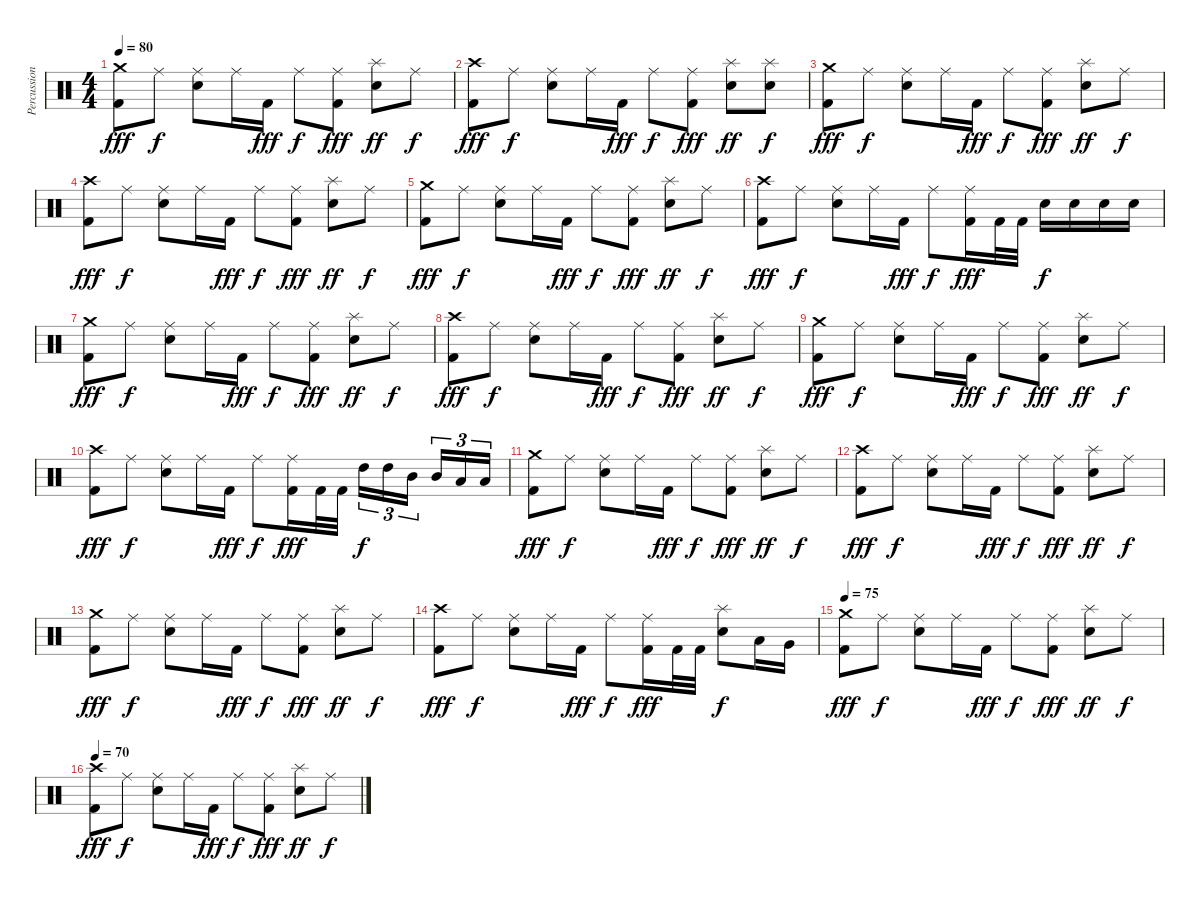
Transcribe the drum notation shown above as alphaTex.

\track ("Percussion" "Percussion") {instrument percussion}
\staff {score}
\articulation defaults
\ts (4 4)
\tempo 80
\clef neutral
\ks c
("Crash medium (hit)" "Kick (hit) 2").8{dy fff} "Ride (middle)".8{dy f} ("Ride (middle)" "Electric Snare (hit)").8 "Ride (middle)".16 "Kick (hit) 2".16{dy fff} "Ride (middle)".8{dy f} ("Ride (middle)" "Kick (hit) 2").8{dy fff} ("Splash (hit)" "Electric Snare (hit)").8{dy ff} "Ride (middle)".8{dy f} |
("Crash high (hit)" "Kick (hit) 2").8{dy fff} "Ride (middle)".8{dy f} ("Ride (middle)" "Electric Snare (hit)").8 "Ride (middle)".16 "Kick (hit) 2".16{dy fff} "Ride (middle)".8{dy f} ("Ride (middle)" "Kick (hit) 2").8{dy fff} ("Splash (hit)" "Electric Snare (hit)").8{dy ff} ("Splash (hit)" "Electric Snare (hit)").8{dy f} |
("Crash medium (hit)" "Kick (hit) 2").8{dy fff} "Ride (middle)".8{dy f} ("Ride (middle)" "Electric Snare (hit)").8 "Ride (middle)".16 "Kick (hit) 2".16{dy fff} "Ride (middle)".8{dy f} ("Ride (middle)" "Kick (hit) 2").8{dy fff} ("Splash (hit)" "Electric Snare (hit)").8{dy ff} "Ride (middle)".8{dy f} |
("Crash high (hit)" "Kick (hit) 2").8{dy fff} "Ride (middle)".8{dy f} ("Ride (middle)" "Electric Snare (hit)").8 "Ride (middle)".16 "Kick (hit) 2".16{dy fff} "Ride (middle)".8{dy f} ("Ride (middle)" "Kick (hit) 2").8{dy fff} ("Splash (hit)" "Electric Snare (hit)").8{dy ff} "Ride (middle)".8{dy f} |
("Crash medium (hit)" "Kick (hit) 2").8{dy fff} "Ride (middle)".8{dy f} ("Ride (middle)" "Electric Snare (hit)").8 "Ride (middle)".16 "Kick (hit) 2".16{dy fff} "Ride (middle)".8{dy f} ("Ride (middle)" "Kick (hit) 2").8{dy fff} ("Splash (hit)" "Electric Snare (hit)").8{dy ff} "Ride (middle)".8{dy f} |
("Crash high (hit)" "Kick (hit) 2").8{dy fff} "Ride (middle)".8{dy f} ("Ride (middle)" "Electric Snare (hit)").8 "Ride (middle)".16 "Kick (hit) 2".16{dy fff} "Ride (middle)".8{dy f} ("Ride (middle)" "Kick (hit) 2").16{dy fff} "Kick (hit) 2".32 "Kick (hit) 2".32 "Electric Snare (hit)".16{dy f} "Electric Snare (hit)".16 "Electric Snare (hit)".16 "Electric Snare (hit)".16 |
("Crash medium (hit)" "Kick (hit) 2").8{dy fff} "Ride (middle)".8{dy f} ("Ride (middle)" "Electric Snare (hit)").8 "Ride (middle)".16 "Kick (hit) 2".16{dy fff} "Ride (middle)".8{dy f} ("Ride (middle)" "Kick (hit) 2").8{dy fff} ("Splash (hit)" "Electric Snare (hit)").8{dy ff} "Ride (middle)".8{dy f} |
("Crash high (hit)" "Kick (hit) 2").8{dy fff} "Ride (middle)".8{dy f} ("Ride (middle)" "Electric Snare (hit)").8 "Ride (middle)".16 "Kick (hit) 2".16{dy fff} "Ride (middle)".8{dy f} ("Ride (middle)" "Kick (hit) 2").8{dy fff} ("Splash (hit)" "Electric Snare (hit)").8{dy ff} "Ride (middle)".8{dy f} |
("Crash medium (hit)" "Kick (hit) 2").8{dy fff} "Ride (middle)".8{dy f} ("Ride (middle)" "Electric Snare (hit)").8 "Ride (middle)".16 "Kick (hit) 2".16{dy fff} "Ride (middle)".8{dy f} ("Ride (middle)" "Kick (hit) 2").8{dy fff} ("Splash (hit)" "Electric Snare (hit)").8{dy ff} "Ride (middle)".8{dy f} |
("Crash high (hit)" "Kick (hit) 2").8{dy fff} "Ride (middle)".8{dy f} ("Ride (middle)" "Electric Snare (hit)").8 "Ride (middle)".16 "Kick (hit) 2".16{dy fff} "Ride (middle)".8{dy f} ("Ride (middle)" "Kick (hit) 2").16{dy fff} "Kick (hit) 2".32 "Kick (hit) 2".32 "High Tom (hit)".16{tu (3 2) dy f} "High Tom (hit)".16{tu (3 2)} "Mid Tom (hit)".16{tu (3 2)} "Mid Tom (hit)".16{tu (3 2)} "Low Tom (hit)".16{tu (3 2)} "Low Tom (hit)".16{tu (3 2)} |
("Crash medium (hit)" "Kick (hit) 2").8{dy fff} "Ride (middle)".8{dy f} ("Ride (middle)" "Electric Snare (hit)").8 "Ride (middle)".16 "Kick (hit) 2".16{dy fff} "Ride (middle)".8{dy f} ("Ride (middle)" "Kick (hit) 2").8{dy fff} ("Splash (hit)" "Electric Snare (hit)").8{dy ff} "Ride (middle)".8{dy f} |
("Crash high (hit)" "Kick (hit) 2").8{dy fff} "Ride (middle)".8{dy f} ("Ride (middle)" "Electric Snare (hit)").8 "Ride (middle)".16 "Kick (hit) 2".16{dy fff} "Ride (middle)".8{dy f} ("Ride (middle)" "Kick (hit) 2").8{dy fff} ("Splash (hit)" "Electric Snare (hit)").8{dy ff} "Ride (middle)".8{dy f} |
("Crash medium (hit)" "Kick (hit) 2").8{dy fff} "Ride (middle)".8{dy f} ("Ride (middle)" "Electric Snare (hit)").8 "Ride (middle)".16 "Kick (hit) 2".16{dy fff} "Ride (middle)".8{dy f} ("Ride (middle)" "Kick (hit) 2").8{dy fff} ("Splash (hit)" "Electric Snare (hit)").8{dy ff} "Ride (middle)".8{dy f} |
("Crash high (hit)" "Kick (hit) 2").8{dy fff} "Ride (middle)".8{dy f} ("Ride (middle)" "Electric Snare (hit)").8 "Ride (middle)".16 "Kick (hit) 2".16{dy fff} "Ride (middle)".8{dy f} ("Ride (middle)" "Kick (hit) 2").16{dy fff} "Kick (hit) 2".32 "Kick (hit) 2".32 ("Splash (hit)" "Electric Snare (hit)").8{dy f} "Low Tom (hit)".16 "Very Low Tom (hit)".16 |
\tempo 75
("Crash medium (hit)" "Kick (hit) 2").8{dy fff} "Ride (middle)".8{dy f} ("Ride (middle)" "Electric Snare (hit)").8 "Ride (middle)".16 "Kick (hit) 2".16{dy fff} "Ride (middle)".8{dy f} ("Ride (middle)" "Kick (hit) 2").8{dy fff} ("Splash (hit)" "Electric Snare (hit)").8{dy ff} "Ride (middle)".8{dy f} |
\tempo 70
("Crash high (hit)" "Kick (hit) 2").8{dy fff} "Ride (middle)".8{dy f} ("Ride (middle)" "Electric Snare (hit)").8 "Ride (middle)".16 "Kick (hit) 2".16{dy fff} "Ride (middle)".8{dy f} ("Ride (middle)" "Kick (hit) 2").8{dy fff} ("Splash (hit)" "Electric Snare (hit)").8{dy ff} "Ride (middle)".8{dy f}
